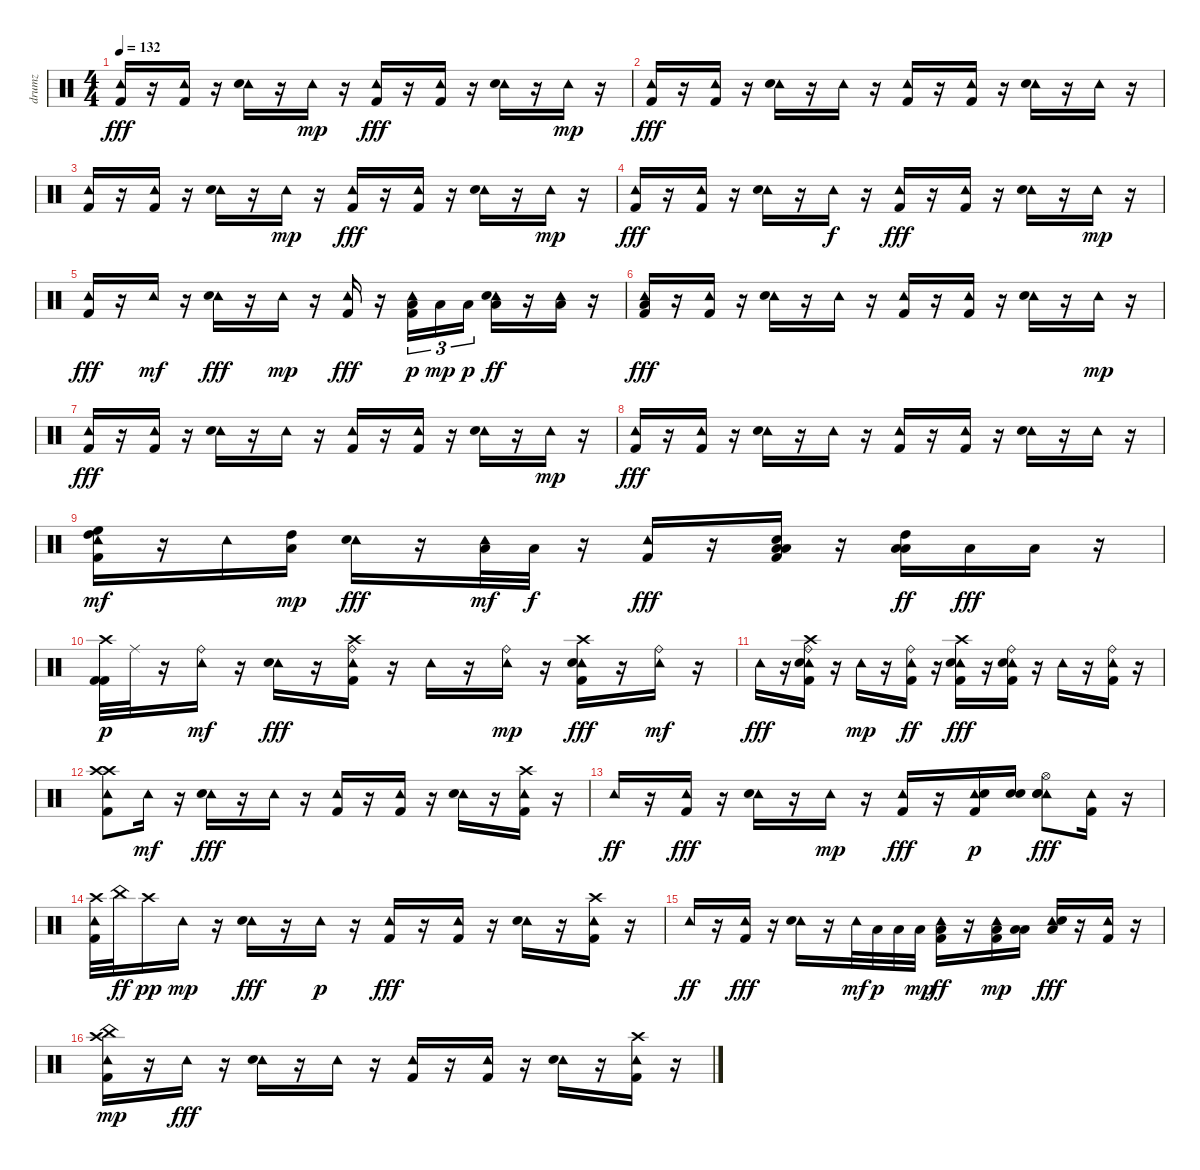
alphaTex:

\track ("drumz" "drumz") {instrument percussion}
\staff {score}
\articulation defaults
\ts (4 4)
\tempo 132
\clef neutral
\ks c
("Tambourine (hit)" "Kick (hit) 2").16{dy fff} r.16 ("Tambourine (hit)" "Kick (hit) 2").16 r.16 ("Tambourine (hit)" "Snare (hit) 2").16 r.16 "Tambourine (hit)".16{dy mp} r.16 ("Tambourine (hit)" "Kick (hit) 2").16{dy fff} r.16 ("Tambourine (hit)" "Kick (hit) 2").16 r.16 ("Tambourine (hit)" "Snare (hit) 2").16 r.16 "Tambourine (hit)".16{dy mp} r.16 |
("Tambourine (hit)" "Kick (hit) 2").16{dy fff} r.16 ("Tambourine (hit)" "Kick (hit) 2").16 r.16 ("Tambourine (hit)" "Snare (hit) 2").16 r.16 "Tambourine (hit)".16 r.16 ("Tambourine (hit)" "Kick (hit) 2").16 r.16 ("Tambourine (hit)" "Kick (hit) 2").16 r.16 ("Tambourine (hit)" "Snare (hit) 2").16 r.16 "Tambourine (hit)".16 r.16 |
("Tambourine (hit)" "Kick (hit) 2").16 r.16 ("Tambourine (hit)" "Kick (hit) 2").16 r.16 ("Tambourine (hit)" "Snare (hit) 2").16 r.16 "Tambourine (hit)".16{dy mp} r.16 ("Tambourine (hit)" "Kick (hit) 2").16{dy fff} r.16 ("Tambourine (hit)" "Kick (hit) 2").16 r.16 ("Tambourine (hit)" "Snare (hit) 2").16 r.16 "Tambourine (hit)".16{dy mp} r.16 |
("Tambourine (hit)" "Kick (hit) 2").16{dy fff} r.16 ("Tambourine (hit)" "Kick (hit) 2").16 r.16 ("Tambourine (hit)" "Snare (hit) 2").16 r.16 "Tambourine (hit)".16{dy f} r.16 ("Tambourine (hit)" "Kick (hit) 2").16{dy fff} r.16 ("Tambourine (hit)" "Kick (hit) 2").16 r.16 ("Tambourine (hit)" "Snare (hit) 2").16 r.16 "Tambourine (hit)".16{dy mp} r.16 |
("Tambourine (hit)" "Kick (hit) 2").16{dy fff} r.16 "Tambourine (hit)".16{dy mf} r.16 ("Tambourine (hit)" "Snare (hit) 2").16{dy fff} r.16 "Tambourine (hit)".16{dy mp} r.16 ("Tambourine (hit)" "Kick (hit) 2").16{dy fff} r.16 ("Tambourine (hit)" "Kick (hit) 2" "Low Tom (hit)").16{tu (3 2) dy p} "Low Tom (hit)".16{tu (3 2) dy mp} "Low Tom (hit)".16{tu (3 2) dy p} ("Tambourine (hit)" "Snare (hit) 2" "Low Tom (hit)").16{dy ff} r.16 ("Tambourine (hit)" "Low Floor Tom (hit)").16 r.16 |
("Tambourine (hit)" "Kick (hit) 2" "Low Floor Tom (hit)").16{dy fff} r.16 ("Tambourine (hit)" "Kick (hit) 2").16 r.16 ("Tambourine (hit)" "Snare (hit) 2").16 r.16 "Tambourine (hit)".16 r.16 ("Tambourine (hit)" "Kick (hit) 2").16 r.16 ("Tambourine (hit)" "Kick (hit) 2").16 r.16 ("Tambourine (hit)" "Snare (hit) 2").16 r.16 "Tambourine (hit)".16{dy mp} r.16 |
("Tambourine (hit)" "Kick (hit) 2").16{dy fff} r.16 ("Tambourine (hit)" "Kick (hit) 2").16 r.16 ("Tambourine (hit)" "Snare (hit) 2").16 r.16 "Tambourine (hit)".16 r.16 ("Tambourine (hit)" "Kick (hit) 2").16 r.16 ("Tambourine (hit)" "Kick (hit) 2").16 r.16 ("Tambourine (hit)" "Snare (hit) 2").16 r.16 "Tambourine (hit)".16{dy mp} r.16 |
("Tambourine (hit)" "Kick (hit) 2").16{dy fff} r.16 ("Tambourine (hit)" "Kick (hit) 2").16 r.16 ("Tambourine (hit)" "Snare (hit) 2").16 r.16 "Tambourine (hit)".16 r.16 ("Tambourine (hit)" "Kick (hit) 2").16 r.16 ("Tambourine (hit)" "Kick (hit) 2").16 r.16 ("Tambourine (hit)" "Snare (hit) 2").16 r.16 "Tambourine (hit)".16 r.16 |
("Tambourine (hit)" "Kick (hit) 2" "High Tom (hit)" "High Floor Tom (hit)").16{dy mf} r.16 "Tambourine (hit)".16 ("High Tom (hit)" "Low Tom (hit)").16{dy mp} ("Tambourine (hit)" "Snare (hit) 2").16{dy fff} r.16 ("Tambourine (hit)" "Low Floor Tom (hit)").32{dy mf} "Low Tom (hit)".32{dy f} r.16 ("Tambourine (hit)" "Kick (hit) 2").16{dy fff} r.16 ("Snare (hit) 2" "Kick (hit) 2" "Low Tom (hit)" "Low Floor Tom (hit)").16 r.16 ("High Tom (hit)" "Low Tom (hit)" "Low Floor Tom (hit)").16{dy ff} "Low Tom (hit)".16{dy fff} "Low Floor Tom (hit)".16 r.16 |
("Crash high (hit)" "Kick (hit) 2" "Kick (hit) 2").32{dy p} "Ride (middle)".32 r.16 ("Tambourine (hit)" "Ride (bell)").16{dy mf} r.16 ("Tambourine (hit)" "Snare (hit) 2").16{dy fff} r.16 ("Tambourine (hit)" "Crash high (hit)" "Kick (hit) 2" "Ride (bell)").16 r.16 "Tambourine (hit)".16 r.16 ("Tambourine (hit)" "Ride (bell)").16{dy mp} r.16 ("Tambourine (hit)" "Crash high (hit)" "Snare (hit) 2" "Kick (hit) 2").16{dy fff} r.16 ("Tambourine (hit)" "Ride (bell)").16{dy mf} r.16 |
"Tambourine (hit)".16{dy fff} r.16 ("Tambourine (hit)" "Crash high (hit)" "Snare (hit) 2" "Kick (hit) 2" "Ride (bell)").16 r.16 "Tambourine (hit)".16{dy mp} r.16 ("Tambourine (hit)" "Kick (hit) 2" "Ride (bell)").16{dy ff} r.16 ("Tambourine (hit)" "Crash high (hit)" "Snare (hit) 2" "Kick (hit) 2").16{dy fff} r.16 ("Tambourine (hit)" "Snare (hit) 2" "Kick (hit) 2" "Ride (bell)").16 r.16 "Tambourine (hit)".16 r.16 ("Tambourine (hit)" "Kick (hit) 2" "Ride (bell)").16 r.16 |
("Tambourine (hit)" "Crash high (hit)" "Kick (hit) 2" "Crash high (hit)").8 "Tambourine (hit)".16{dy mf} r.16 ("Tambourine (hit)" "Snare (hit) 2").16{dy fff} r.16 "Tambourine (hit)".16 r.16 ("Tambourine (hit)" "Kick (hit) 2").16 r.16 ("Tambourine (hit)" "Kick (hit) 2").16 r.16 ("Tambourine (hit)" "Snare (hit) 2").16 r.16 ("Tambourine (hit)" "Crash high (hit)" "Kick (hit) 2").16 r.16 |
"Tambourine (hit)".16{dy ff} r.16 ("Tambourine (hit)" "Kick (hit) 2").16{dy fff} r.16 ("Tambourine (hit)" "Snare (hit) 2").16 r.16 "Tambourine (hit)".16{dy mp} r.16 ("Tambourine (hit)" "Kick (hit) 2").16{dy fff} r.16 ("Tambourine (hit)" "Kick (hit) 2" "Snare (hit) 2").16{dy p} ("Snare (hit) 2" "Snare (hit) 2").16 ("Tambourine (hit)" "Snare (hit) 2" "Hi-Hat (open)" "Snare (hit) 2").8{dy fff} ("Tambourine (hit)" "Kick (hit) 2").16 r.16 |
("Tambourine (hit)" "Crash high (hit)" "Kick (hit) 2").32 "China (hit)".32{dy ff} "Crash high (hit)".16{dy pp} "Tambourine (hit)".16{dy mp} r.16 ("Tambourine (hit)" "Snare (hit) 2").16{dy fff} r.16 "Tambourine (hit)".16{dy p} r.16 ("Tambourine (hit)" "Kick (hit) 2").16{dy fff} r.16 ("Tambourine (hit)" "Kick (hit) 2").16 r.16 ("Tambourine (hit)" "Snare (hit) 2").16 r.16 ("Tambourine (hit)" "Crash high (hit)" "Kick (hit) 2").16 r.16 |
"Tambourine (hit)".16{dy ff} r.16 ("Tambourine (hit)" "Kick (hit) 2").16{dy fff} r.16 ("Tambourine (hit)" "Snare (hit) 2").16 r.16 "Tambourine (hit)".32{dy mf} "Low Tom (hit)".32{dy p} "Low Tom (hit)".32 "Low Tom (hit)".32{dy mp} ("Tambourine (hit)" "Kick (hit) 2" "Low Tom (hit)").16{dy ff} r.16 ("Tambourine (hit)" "Kick (hit) 2" "Low Floor Tom (hit)").16{dy mp} ("Low Floor Tom (hit)" "Low Floor Tom (hit)").16 ("Low Floor Tom (hit)" "Tambourine (hit)" "Snare (hit) 2").16{dy fff} r.16 ("Tambourine (hit)" "Kick (hit) 2").16 r.16 |
("Tambourine (hit)" "Crash high (hit)" "Kick (hit) 2" "China (hit)").16{dy mp} r.16 "Tambourine (hit)".16{dy fff} r.16 ("Tambourine (hit)" "Snare (hit) 2").16 r.16 "Tambourine (hit)".16 r.16 ("Tambourine (hit)" "Kick (hit) 2").16 r.16 ("Tambourine (hit)" "Kick (hit) 2").16 r.16 ("Tambourine (hit)" "Snare (hit) 2").16 r.16 ("Tambourine (hit)" "Crash high (hit)" "Kick (hit) 2").16 r.16
